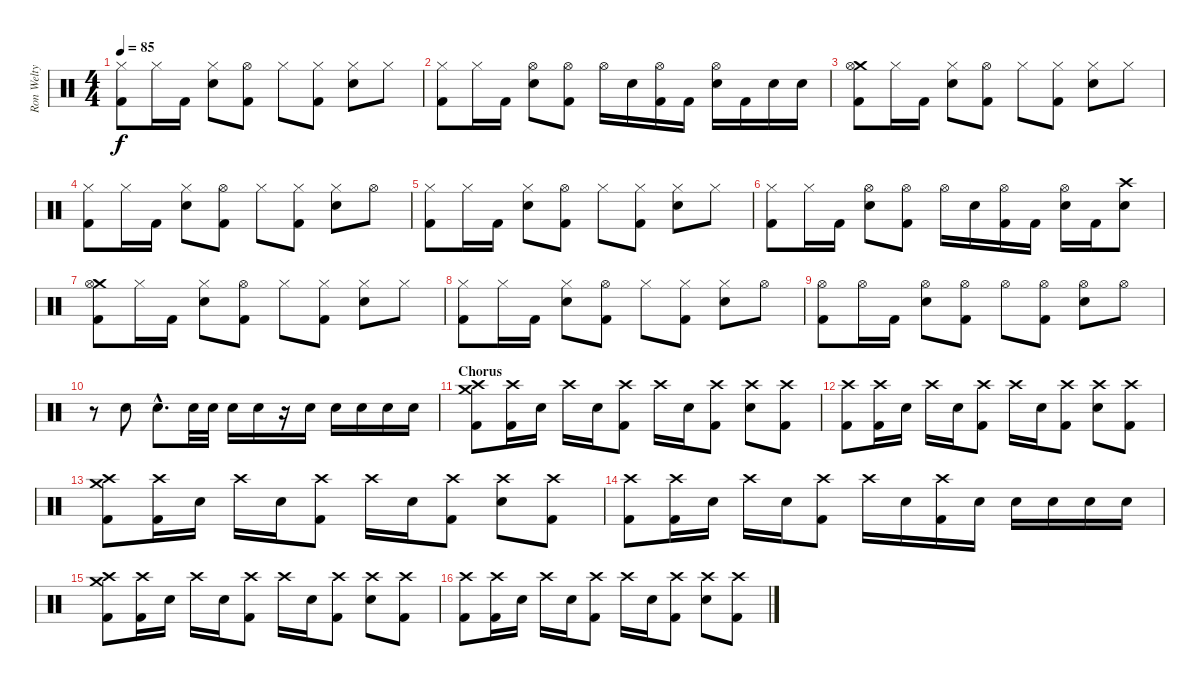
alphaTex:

\track ("Ron Welty - Drums" "Ron Welty ") {instrument percussion}
\staff {score}
\articulation defaults
\ts (4 4)
\tempo 85
\clef neutral
\ks c
("Hi-Hat (closed)" "Kick (hit) 2").8{dy f} "Hi-Hat (closed)".16 "Kick (hit) 2".16 ("Hi-Hat (closed)" "Snare (hit) 2").8 ("Hi-Hat (open)" "Kick (hit) 2").8 "Hi-Hat (closed)".8 ("Hi-Hat (closed)" "Kick (hit) 2").8 ("Hi-Hat (closed)" "Snare (hit) 2").8 "Hi-Hat (closed)".8 |
("Hi-Hat (closed)" "Kick (hit) 2").8 "Hi-Hat (closed)".16 "Kick (hit) 2".16 ("Hi-Hat (open)" "Snare (hit) 2").8 ("Hi-Hat (open)" "Kick (hit) 2").8 "Hi-Hat (open)".16 "Snare (hit) 2".16 ("Hi-Hat (open)" "Kick (hit) 2").16 "Kick (hit) 2".16 ("Hi-Hat (open)" "Snare (hit) 2").16 "Kick (hit) 2".16 "Snare (hit) 2".16 "Snare (hit) 2".16 |
("Crash medium (hit)" "Hi-Hat (open)" "Kick (hit) 2").8 "Hi-Hat (closed)".16 "Kick (hit) 2".16 ("Hi-Hat (closed)" "Snare (hit) 2").8 ("Hi-Hat (open)" "Kick (hit) 2").8 "Hi-Hat (closed)".8 ("Hi-Hat (closed)" "Kick (hit) 2").8 ("Hi-Hat (closed)" "Snare (hit) 2").8 "Hi-Hat (closed)".8 |
("Hi-Hat (closed)" "Kick (hit) 2").8 "Hi-Hat (closed)".16 "Kick (hit) 2".16 ("Hi-Hat (closed)" "Snare (hit) 2").8 ("Hi-Hat (open)" "Kick (hit) 2").8 "Hi-Hat (closed)".8 ("Hi-Hat (closed)" "Kick (hit) 2").8 ("Hi-Hat (closed)" "Snare (hit) 2").8 "Hi-Hat (open)".8 |
("Hi-Hat (closed)" "Kick (hit) 2").8 "Hi-Hat (closed)".16 "Kick (hit) 2".16 ("Hi-Hat (closed)" "Snare (hit) 2").8 ("Hi-Hat (open)" "Kick (hit) 2").8 "Hi-Hat (closed)".8 ("Hi-Hat (closed)" "Kick (hit) 2").8 ("Hi-Hat (closed)" "Snare (hit) 2").8 "Hi-Hat (closed)".8 |
("Hi-Hat (closed)" "Kick (hit) 2").8 "Hi-Hat (closed)".16 "Kick (hit) 2".16 ("Hi-Hat (open)" "Snare (hit) 2").8 ("Hi-Hat (open)" "Kick (hit) 2").8 "Hi-Hat (open)".16 "Snare (hit) 2".16 ("Hi-Hat (open)" "Kick (hit) 2").16 "Kick (hit) 2".16 ("Hi-Hat (open)" "Snare (hit) 2").16 "Kick (hit) 2".16 ("Crash high (hit)" "Snare (hit) 2").8 |
("Crash medium (hit)" "Hi-Hat (open)" "Kick (hit) 2").8 "Hi-Hat (closed)".16 "Kick (hit) 2".16 ("Hi-Hat (closed)" "Snare (hit) 2").8 ("Hi-Hat (open)" "Kick (hit) 2").8 "Hi-Hat (closed)".8 ("Hi-Hat (closed)" "Kick (hit) 2").8 ("Hi-Hat (closed)" "Snare (hit) 2").8 "Hi-Hat (closed)".8 |
("Hi-Hat (closed)" "Kick (hit) 2").8 "Hi-Hat (closed)".16 "Kick (hit) 2".16 ("Hi-Hat (closed)" "Snare (hit) 2").8 ("Hi-Hat (open)" "Kick (hit) 2").8 "Hi-Hat (closed)".8 ("Hi-Hat (closed)" "Kick (hit) 2").8 ("Hi-Hat (closed)" "Snare (hit) 2").8 "Hi-Hat (open)".8 |
("Hi-Hat (open)" "Kick (hit) 2").8 "Hi-Hat (open)".16 "Kick (hit) 2".16 ("Hi-Hat (open)" "Snare (hit) 2").8 ("Hi-Hat (open)" "Kick (hit) 2").8 "Hi-Hat (open)".8 ("Hi-Hat (open)" "Kick (hit) 2").8 ("Hi-Hat (open)" "Snare (hit) 2").8 "Hi-Hat (open)".8 |
r.8 "Snare (hit) 2".8 "Snare (hit) 2"{hac}.8{d} "Snare (hit) 2".32 "Snare (hit) 2".32 "Snare (hit) 2".16 "Snare (hit) 2".16 r.16 "Snare (hit) 2".16 "Snare (hit) 2".16 "Snare (hit) 2".16 "Snare (hit) 2".16 "Snare (hit) 2".16 |
\section ("" "Chorus")
("Crash high (hit)" "Crash medium (hit)" "Kick (hit) 2").8 ("Crash high (hit)" "Kick (hit) 2").16 "Snare (hit) 2".16 "Crash high (hit)".16 "Snare (hit) 2".16 ("Crash high (hit)" "Kick (hit) 2").8 "Crash high (hit)".16 "Snare (hit) 2".16 ("Crash high (hit)" "Kick (hit) 2").8 ("Crash high (hit)" "Snare (hit) 2").8 ("Crash high (hit)" "Kick (hit) 2").8 |
("Crash high (hit)" "Kick (hit) 2").8 ("Crash high (hit)" "Kick (hit) 2").16 "Snare (hit) 2".16 "Crash high (hit)".16 "Snare (hit) 2".16 ("Crash high (hit)" "Kick (hit) 2").8 "Crash high (hit)".16 "Snare (hit) 2".16 ("Crash high (hit)" "Kick (hit) 2").8 ("Crash high (hit)" "Snare (hit) 2").8 ("Crash high (hit)" "Kick (hit) 2").8 |
("Crash high (hit)" "Crash medium (hit)" "Kick (hit) 2").8 ("Crash high (hit)" "Kick (hit) 2").16 "Snare (hit) 2".16 "Crash high (hit)".16 "Snare (hit) 2".16 ("Crash high (hit)" "Kick (hit) 2").8 "Crash high (hit)".16 "Snare (hit) 2".16 ("Crash high (hit)" "Kick (hit) 2").8 ("Crash high (hit)" "Snare (hit) 2").8 ("Crash high (hit)" "Kick (hit) 2").8 |
("Crash high (hit)" "Kick (hit) 2").8 ("Crash high (hit)" "Kick (hit) 2").16 "Snare (hit) 2".16 "Crash high (hit)".16 "Snare (hit) 2".16 ("Crash high (hit)" "Kick (hit) 2").8 "Crash high (hit)".16 "Snare (hit) 2".16 ("Crash high (hit)" "Kick (hit) 2").16 "Snare (hit) 2".16 "Snare (hit) 2".16 "Snare (hit) 2".16 "Snare (hit) 2".16 "Snare (hit) 2".16 |
("Crash high (hit)" "Crash medium (hit)" "Kick (hit) 2").8 ("Crash high (hit)" "Kick (hit) 2").16 "Snare (hit) 2".16 "Crash high (hit)".16 "Snare (hit) 2".16 ("Crash high (hit)" "Kick (hit) 2").8 "Crash high (hit)".16 "Snare (hit) 2".16 ("Crash high (hit)" "Kick (hit) 2").8 ("Crash high (hit)" "Snare (hit) 2").8 ("Crash high (hit)" "Kick (hit) 2").8 |
("Crash high (hit)" "Kick (hit) 2").8 ("Crash high (hit)" "Kick (hit) 2").16 "Snare (hit) 2".16 "Crash high (hit)".16 "Snare (hit) 2".16 ("Crash high (hit)" "Kick (hit) 2").8 "Crash high (hit)".16 "Snare (hit) 2".16 ("Crash high (hit)" "Kick (hit) 2").8 ("Crash high (hit)" "Snare (hit) 2").8 ("Crash high (hit)" "Kick (hit) 2").8
